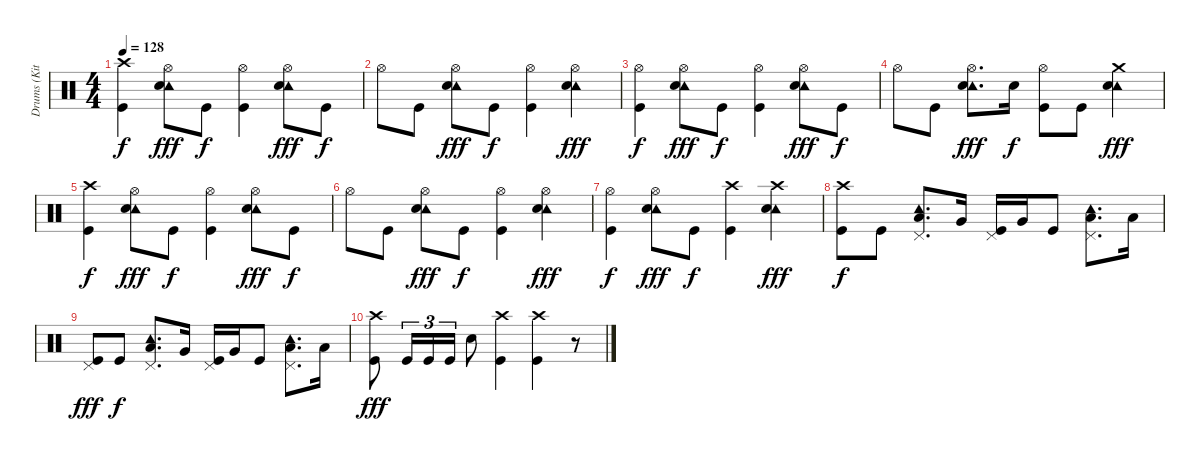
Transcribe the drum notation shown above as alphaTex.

\track ("Drums (Kita)" "Drums (Kit") {instrument percussion}
\staff {score}
\articulation defaults
\ts (4 4)
\tempo 128
\clef neutral
\ks c
("Crash high (hit)" "Kick (hit)").4{dy f} ("Hi-Hat (open)" "Tambourine (hit)" "Electric Snare (hit)").8{dy fff} "Kick (hit)".8{dy f} ("Hi-Hat (open)" "Kick (hit)").4 ("Hi-Hat (open)" "Tambourine (hit)" "Electric Snare (hit)").8{dy fff} "Kick (hit)".8{dy f} |
"Hi-Hat (open)".8 "Kick (hit)".8 ("Hi-Hat (open)" "Tambourine (hit)" "Electric Snare (hit)").8{dy fff} "Kick (hit)".8{dy f} ("Hi-Hat (open)" "Kick (hit)").4 ("Hi-Hat (open)" "Tambourine (hit)" "Electric Snare (hit)").4{dy fff} |
("Hi-Hat (open)" "Kick (hit)").4{dy f} ("Hi-Hat (open)" "Tambourine (hit)" "Electric Snare (hit)").8{dy fff} "Kick (hit)".8{dy f} ("Hi-Hat (open)" "Kick (hit)").4 ("Hi-Hat (open)" "Tambourine (hit)" "Electric Snare (hit)").8{dy fff} "Kick (hit)".8{dy f} |
"Hi-Hat (open)".8 "Kick (hit)".8 ("Hi-Hat (open)" "Tambourine (hit)" "Electric Snare (hit)").8{d dy fff} "Electric Snare (hit)".16{dy f} ("Hi-Hat (open)" "Kick (hit)").8 "Kick (hit)".8 ("Crash medium (hit)" "Tambourine (hit)" "Electric Snare (hit)").4{dy fff} |
("Crash high (hit)" "Kick (hit)").4{dy f} ("Hi-Hat (open)" "Tambourine (hit)" "Electric Snare (hit)").8{dy fff} "Kick (hit)".8{dy f} ("Hi-Hat (open)" "Kick (hit)").4 ("Hi-Hat (open)" "Tambourine (hit)" "Electric Snare (hit)").8{dy fff} "Kick (hit)".8{dy f} |
"Hi-Hat (open)".8 "Kick (hit)".8 ("Hi-Hat (open)" "Tambourine (hit)" "Electric Snare (hit)").8{dy fff} "Kick (hit)".8{dy f} ("Hi-Hat (open)" "Kick (hit)").4 ("Hi-Hat (open)" "Tambourine (hit)" "Electric Snare (hit)").4{dy fff} |
("Hi-Hat (open)" "Kick (hit)").4{dy f} ("Hi-Hat (open)" "Tambourine (hit)" "Electric Snare (hit)").8{dy fff} "Kick (hit)".8{dy f} ("Crash high (hit)" "Kick (hit)").4 ("Crash high (hit)" "Tambourine (hit)" "Electric Snare (hit)").4{dy fff} |
("Crash high (hit)" "Kick (hit)").8{dy f} "Kick (hit)".8 ("Pedal Hi-Hat (hit)" "Tambourine (hit)" "Low Tom (hit)").8{d} "Very Low Tom (hit)".16 ("Pedal Hi-Hat (hit)" "Kick (hit)").16 "Very Low Tom (hit)".16 "Kick (hit)".8 ("Pedal Hi-Hat (hit)" "Tambourine (hit)" "Low Tom (hit)").8{d} "Low Tom (hit)".16 |
("Pedal Hi-Hat (hit)" "Kick (hit)").8{dy fff} "Kick (hit)".8{dy f} ("Pedal Hi-Hat (hit)" "Tambourine (hit)" "Low Tom (hit)").8{d} "Very Low Tom (hit)".16 ("Pedal Hi-Hat (hit)" "Kick (hit)").16 "Very Low Tom (hit)".16 "Kick (hit)".8 ("Pedal Hi-Hat (hit)" "Tambourine (hit)" "Low Tom (hit)").8{d} "Low Tom (hit)".16 |
("Crash high (hit)" "Kick (hit)").8{dy fff} "Kick (hit)".16{tu (3 2)} "Kick (hit)".16{tu (3 2)} "Kick (hit)".16{tu (3 2)} "Electric Snare (hit)".8 ("Crash high (hit)" "Kick (hit)").4 ("Crash high (hit)" "Kick (hit)").4 r.8
